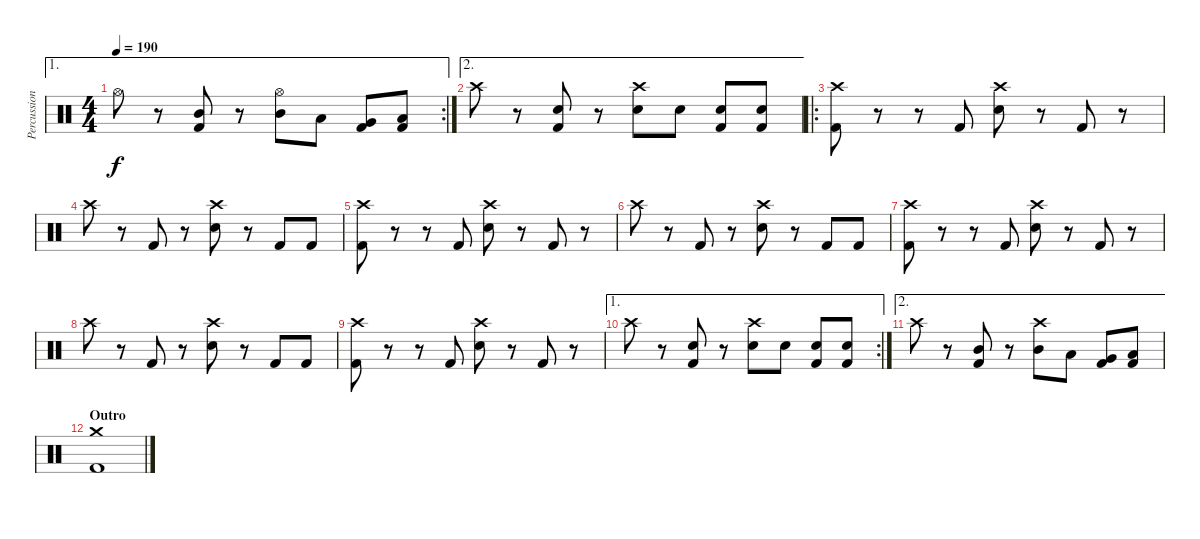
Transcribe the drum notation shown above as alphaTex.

\track ("Percussion" "Percussion") {instrument percussion}
\staff {score}
\articulation defaults
\ae 1
\rc 2
\ts (4 4)
\tempo 190
\clef neutral
\ks c "Hi-Hat (open)".8{dy f}
r.8 ("Mid Tom (hit)" "Kick (hit) 2").8 r.8 ("Hi-Hat (open)" "Mid Tom (hit)").8 "Low Tom (hit)".8 ("Very Low Tom (hit)" "Kick (hit) 2").8 ("Low Floor Tom (hit)" "Kick (hit) 2").8 |
\ae 2 "Crash high (hit)".8
r.8 ("Electric Snare (hit)" "Kick (hit) 2").8 r.8 ("Crash high (hit)" "Electric Snare (hit)").8 "Electric Snare (hit)".8 ("Electric Snare (hit)" "Kick (hit) 2").8 ("Electric Snare (hit)" "Kick (hit) 2").8 |
\ro
("Crash high (hit)" "Kick (hit) 2").8 r.8 r.8 "Kick (hit) 2".8 ("Crash high (hit)" "Electric Snare (hit)").8 r.8 "Kick (hit) 2".8 r.8 |
"Crash high (hit)".8 r.8 "Kick (hit) 2".8 r.8 ("Crash high (hit)" "Electric Snare (hit)").8 r.8 "Kick (hit) 2".8 "Kick (hit) 2".8 |
("Crash high (hit)" "Kick (hit) 2").8 r.8 r.8 "Kick (hit) 2".8 ("Crash high (hit)" "Electric Snare (hit)").8 r.8 "Kick (hit) 2".8 r.8 |
"Crash high (hit)".8 r.8 "Kick (hit) 2".8 r.8 ("Crash high (hit)" "Electric Snare (hit)").8 r.8 "Kick (hit) 2".8 "Kick (hit) 2".8 |
("Crash high (hit)" "Kick (hit) 2").8 r.8 r.8 "Kick (hit) 2".8 ("Crash high (hit)" "Electric Snare (hit)").8 r.8 "Kick (hit) 2".8 r.8 |
"Crash high (hit)".8 r.8 "Kick (hit) 2".8 r.8 ("Crash high (hit)" "Electric Snare (hit)").8 r.8 "Kick (hit) 2".8 "Kick (hit) 2".8 |
("Crash high (hit)" "Kick (hit) 2").8 r.8 r.8 "Kick (hit) 2".8 ("Crash high (hit)" "Electric Snare (hit)").8 r.8 "Kick (hit) 2".8 r.8 |
\ae 1
\rc 2 "Crash high (hit)".8
r.8 ("Electric Snare (hit)" "Kick (hit) 2").8 r.8 ("Crash high (hit)" "Electric Snare (hit)").8 "Electric Snare (hit)".8 ("Electric Snare (hit)" "Kick (hit) 2").8 ("Electric Snare (hit)" "Kick (hit) 2").8 |
\ae 2 "Crash high (hit)".8
r.8 ("Mid Tom (hit)" "Kick (hit) 2").8 r.8 ("Crash high (hit)" "Mid Tom (hit)").8 "Low Tom (hit)".8 ("Very Low Tom (hit)" "Kick (hit) 2").8 ("Low Floor Tom (hit)" "Kick (hit) 2").8 |
\section ("" "Outro")
("Crash medium (hit)" "Kick (hit) 2").1
